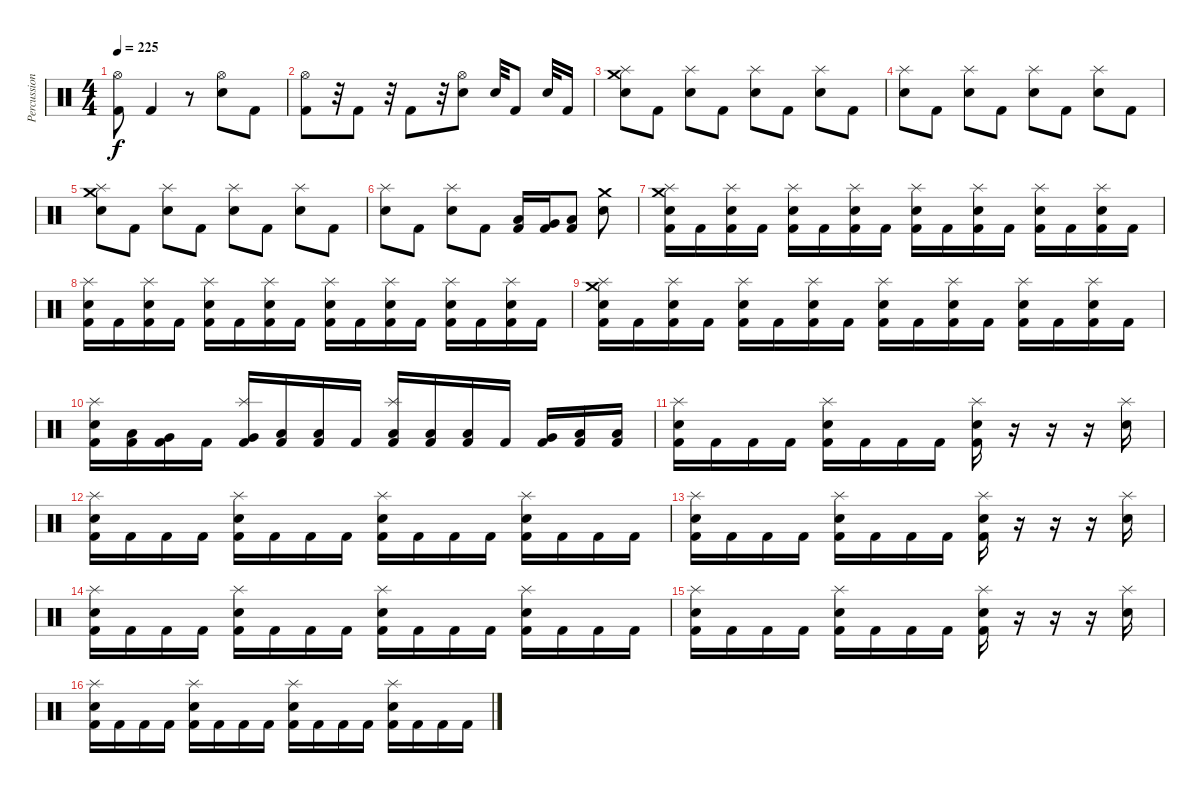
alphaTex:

\track ("Percussion" "Percussion") {instrument percussion}
\staff {score}
\articulation defaults
\ts (4 4)
\tempo 225
\clef neutral
\ks c
("Kick (hit) 2" "Hi-Hat (open)").8{dy f} "Kick (hit) 2".4 r.8 ("Hi-Hat (open)" "Snare (hit) 2").8 "Kick (hit) 2".8 |
("Kick (hit) 2" "Hi-Hat (open)").8 r.32 "Kick (hit) 2".8 r.32 "Kick (hit) 2".8 r.32 ("Snare (hit) 2" "Hi-Hat (open)").8 "Snare (hit)".32 "Kick (hit) 2".8 "Snare (hit)".32 "Kick (hit) 2".16 |
("Crash medium (hit)" "Splash (hit)" "Snare (hit) 2").8 "Kick (hit) 2".8 ("Splash (hit)" "Snare (hit) 2").8 "Kick (hit) 2".8 ("Splash (hit)" "Snare (hit) 2").8 "Kick (hit) 2".8 ("Splash (hit)" "Snare (hit) 2").8 "Kick (hit) 2".8 |
("Splash (hit)" "Snare (hit) 2").8 "Kick (hit) 2".8 ("Splash (hit)" "Snare (hit) 2").8 "Kick (hit) 2".8 ("Splash (hit)" "Snare (hit) 2").8 "Kick (hit) 2".8 ("Splash (hit)" "Snare (hit) 2").8 "Kick (hit) 2".8 |
("Crash medium (hit)" "Splash (hit)" "Snare (hit) 2").8 "Kick (hit) 2".8 ("Splash (hit)" "Snare (hit) 2").8 "Kick (hit) 2".8 ("Splash (hit)" "Snare (hit) 2").8 "Kick (hit) 2".8 ("Splash (hit)" "Snare (hit) 2").8 "Kick (hit) 2".8 |
("Splash (hit)" "Snare (hit) 2").8 "Kick (hit) 2".8 ("Splash (hit)" "Snare (hit) 2").8 "Kick (hit) 2".8 ("Kick (hit) 2" "Low Tom (hit)").16 ("Kick (hit) 2" "Very Low Tom (hit)").16 ("Kick (hit) 2" "Low Floor Tom (hit)").8 ("Crash medium (hit)" "Snare (hit) 2").8 |
("Crash medium (hit)" "Splash (hit)" "Snare (hit) 2" "Kick (hit) 2").16 "Kick (hit) 2".16 ("Splash (hit)" "Snare (hit) 2" "Kick (hit) 2").16 "Kick (hit) 2".16 ("Splash (hit)" "Snare (hit) 2" "Kick (hit) 2").16 "Kick (hit) 2".16 ("Splash (hit)" "Snare (hit) 2" "Kick (hit) 2").16 "Kick (hit) 2".16 ("Splash (hit)" "Snare (hit) 2" "Kick (hit) 2").16 "Kick (hit) 2".16 ("Splash (hit)" "Snare (hit) 2" "Kick (hit) 2").16 "Kick (hit) 2".16 ("Splash (hit)" "Snare (hit) 2" "Kick (hit) 2").16 "Kick (hit) 2".16 ("Splash (hit)" "Snare (hit) 2" "Kick (hit) 2").16 "Kick (hit) 2".16 |
("Splash (hit)" "Snare (hit) 2" "Kick (hit) 2").16 "Kick (hit) 2".16 ("Splash (hit)" "Snare (hit) 2" "Kick (hit) 2").16 "Kick (hit) 2".16 ("Splash (hit)" "Snare (hit) 2" "Kick (hit) 2").16 "Kick (hit) 2".16 ("Splash (hit)" "Snare (hit) 2" "Kick (hit) 2").16 "Kick (hit) 2".16 ("Splash (hit)" "Snare (hit) 2" "Kick (hit) 2").16 "Kick (hit) 2".16 ("Splash (hit)" "Snare (hit) 2" "Kick (hit) 2").16 "Kick (hit) 2".16 ("Splash (hit)" "Snare (hit) 2" "Kick (hit) 2").16 "Kick (hit) 2".16 ("Splash (hit)" "Snare (hit) 2" "Kick (hit) 2").16 "Kick (hit) 2".16 |
("Crash medium (hit)" "Splash (hit)" "Snare (hit) 2" "Kick (hit) 2").16 "Kick (hit) 2".16 ("Splash (hit)" "Snare (hit) 2" "Kick (hit) 2").16 "Kick (hit) 2".16 ("Splash (hit)" "Snare (hit) 2" "Kick (hit) 2").16 "Kick (hit) 2".16 ("Splash (hit)" "Snare (hit) 2" "Kick (hit) 2").16 "Kick (hit) 2".16 ("Splash (hit)" "Snare (hit) 2" "Kick (hit) 2").16 "Kick (hit) 2".16 ("Splash (hit)" "Snare (hit) 2" "Kick (hit) 2").16 "Kick (hit) 2".16 ("Splash (hit)" "Snare (hit) 2" "Kick (hit) 2").16 "Kick (hit) 2".16 ("Splash (hit)" "Snare (hit) 2" "Kick (hit) 2").16 "Kick (hit) 2".16 |
("Splash (hit)" "Snare (hit) 2" "Kick (hit) 2").16 ("Low Tom (hit)" "Kick (hit) 2").16 ("Very Low Tom (hit)" "Kick (hit) 2").16 "Kick (hit) 2".16 ("Splash (hit)" "Very Low Tom (hit)" "Kick (hit) 2").16 ("Low Floor Tom (hit)" "Kick (hit) 2").16 ("Low Floor Tom (hit)" "Kick (hit) 2").16 "Kick (hit) 2".16 ("Splash (hit)" "Low Floor Tom (hit)" "Kick (hit) 2").16 ("Low Floor Tom (hit)" "Kick (hit) 2").16 ("Low Floor Tom (hit)" "Kick (hit) 2").16 "Kick (hit) 2".16 ("Very Low Tom (hit)" "Kick (hit) 2").16 ("Low Floor Tom (hit)" "Kick (hit) 2").16 ("Low Floor Tom (hit)" "Kick (hit) 2").16 |
("Splash (hit)" "Snare (hit) 2" "Kick (hit) 2").16 "Kick (hit) 2".16 "Kick (hit) 2".16 "Kick (hit) 2".16 ("Splash (hit)" "Snare (hit) 2" "Kick (hit) 2").16 "Kick (hit) 2".16 "Kick (hit) 2".16 "Kick (hit) 2".16 ("Splash (hit)" "Snare (hit) 2" "Kick (hit) 2").16 r.16 r.16 r.16 ("Splash (hit)" "Snare (hit) 2").16 |
("Splash (hit)" "Snare (hit) 2" "Kick (hit) 2").16 "Kick (hit) 2".16 "Kick (hit) 2".16 "Kick (hit) 2".16 ("Splash (hit)" "Snare (hit) 2" "Kick (hit) 2").16 "Kick (hit) 2".16 "Kick (hit) 2".16 "Kick (hit) 2".16 ("Splash (hit)" "Snare (hit) 2" "Kick (hit) 2").16 "Kick (hit) 2".16 "Kick (hit) 2".16 "Kick (hit) 2".16 ("Splash (hit)" "Snare (hit) 2" "Kick (hit) 2").16 "Kick (hit) 2".16 "Kick (hit) 2".16 "Kick (hit) 2".16 |
("Splash (hit)" "Snare (hit) 2" "Kick (hit) 2").16 "Kick (hit) 2".16 "Kick (hit) 2".16 "Kick (hit) 2".16 ("Splash (hit)" "Snare (hit) 2" "Kick (hit) 2").16 "Kick (hit) 2".16 "Kick (hit) 2".16 "Kick (hit) 2".16 ("Splash (hit)" "Snare (hit) 2" "Kick (hit) 2").16 r.16 r.16 r.16 ("Splash (hit)" "Snare (hit) 2").16 |
("Splash (hit)" "Snare (hit) 2" "Kick (hit) 2").16 "Kick (hit) 2".16 "Kick (hit) 2".16 "Kick (hit) 2".16 ("Splash (hit)" "Snare (hit) 2" "Kick (hit) 2").16 "Kick (hit) 2".16 "Kick (hit) 2".16 "Kick (hit) 2".16 ("Splash (hit)" "Snare (hit) 2" "Kick (hit) 2").16 "Kick (hit) 2".16 "Kick (hit) 2".16 "Kick (hit) 2".16 ("Splash (hit)" "Snare (hit) 2" "Kick (hit) 2").16 "Kick (hit) 2".16 "Kick (hit) 2".16 "Kick (hit) 2".16 |
("Splash (hit)" "Snare (hit) 2" "Kick (hit) 2").16 "Kick (hit) 2".16 "Kick (hit) 2".16 "Kick (hit) 2".16 ("Splash (hit)" "Snare (hit) 2" "Kick (hit) 2").16 "Kick (hit) 2".16 "Kick (hit) 2".16 "Kick (hit) 2".16 ("Splash (hit)" "Snare (hit) 2" "Kick (hit) 2").16 r.16 r.16 r.16 ("Splash (hit)" "Snare (hit) 2").16 |
("Splash (hit)" "Snare (hit) 2" "Kick (hit) 2").16 "Kick (hit) 2".16 "Kick (hit) 2".16 "Kick (hit) 2".16 ("Splash (hit)" "Snare (hit) 2" "Kick (hit) 2").16 "Kick (hit) 2".16 "Kick (hit) 2".16 "Kick (hit) 2".16 ("Splash (hit)" "Snare (hit) 2" "Kick (hit) 2").16 "Kick (hit) 2".16 "Kick (hit) 2".16 "Kick (hit) 2".16 ("Splash (hit)" "Snare (hit) 2" "Kick (hit) 2").16 "Kick (hit) 2".16 "Kick (hit) 2".16 "Kick (hit) 2".16
